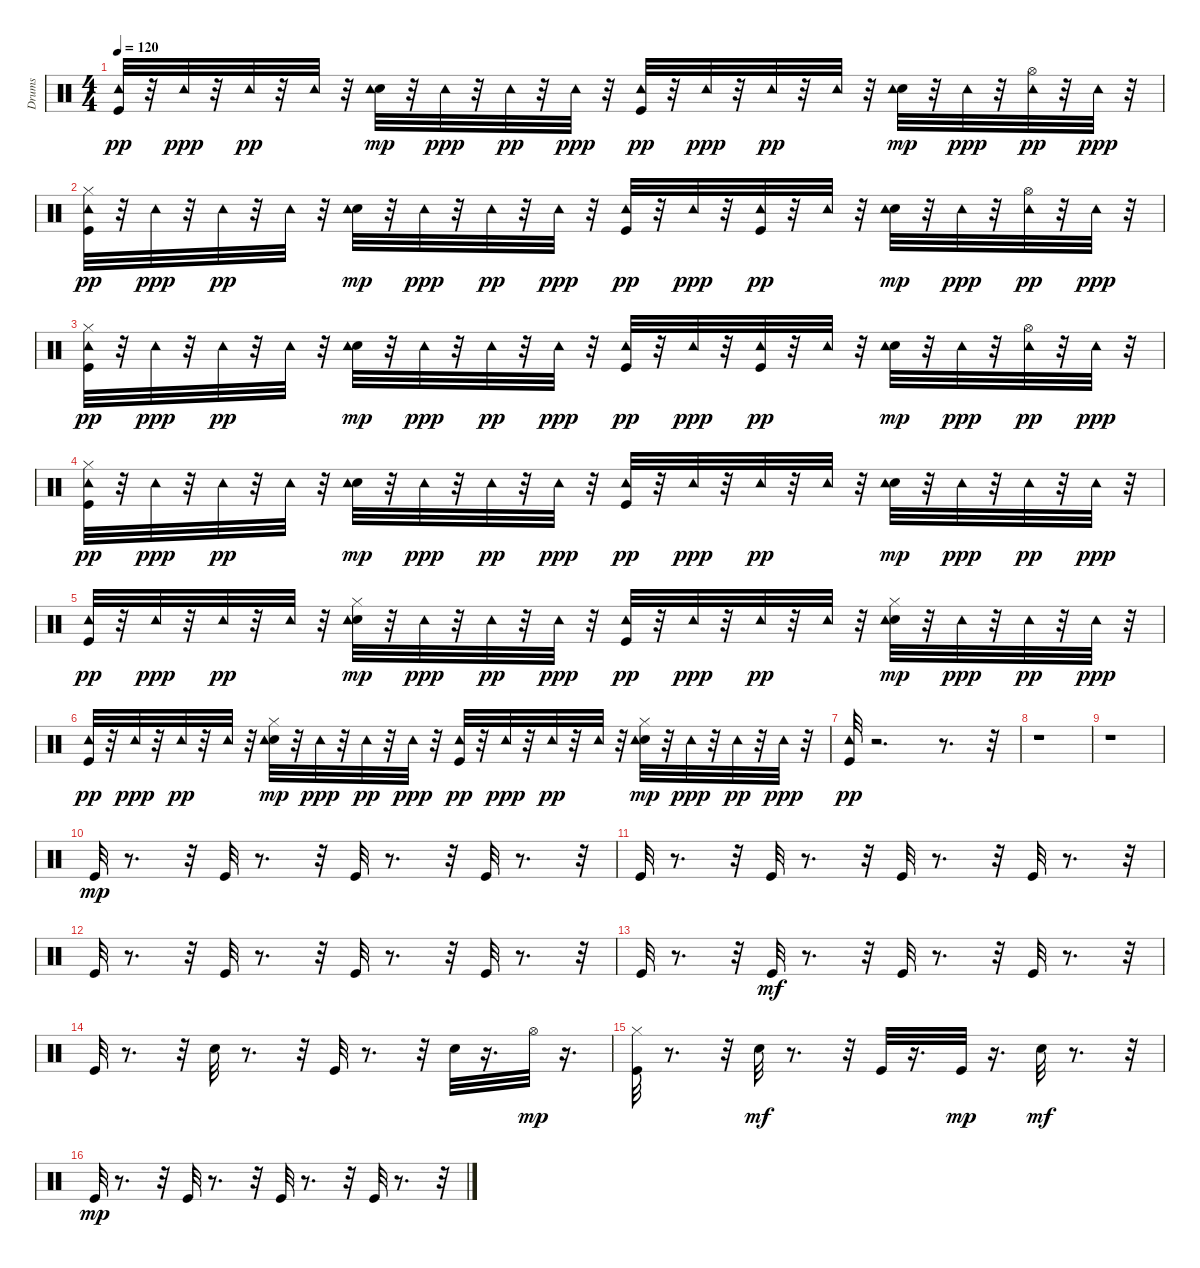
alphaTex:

\track ("Drums" "Drums") {instrument percussion}
\staff {score}
\articulation defaults
\ts (4 4)
\tempo 120
\clef neutral
\ks c
("Kick (hit)" "Tambourine (hit)").32{dy pp} r.32 "Tambourine (hit)".32{dy ppp} r.32 "Tambourine (hit)".32{dy pp} r.32 "Tambourine (hit)".32 r.32 ("Electric Snare (hit)" "Tambourine (hit)").32{dy mp} r.32 "Tambourine (hit)".32{dy ppp} r.32 "Tambourine (hit)".32{dy pp} r.32 "Tambourine (hit)".32{dy ppp} r.32 ("Kick (hit)" "Tambourine (hit)").32{dy pp} r.32 "Tambourine (hit)".32{dy ppp} r.32 "Tambourine (hit)".32{dy pp} r.32 "Tambourine (hit)".32 r.32 ("Electric Snare (hit)" "Tambourine (hit)").32{dy mp} r.32 "Tambourine (hit)".32{dy ppp} r.32 ("Hi-Hat (open)" "Tambourine (hit)").32{dy pp} r.32 "Tambourine (hit)".32{dy ppp} r.32 |
("Kick (hit)" "Hi-Hat (closed)" "Tambourine (hit)").32{dy pp} r.32 "Tambourine (hit)".32{dy ppp} r.32 "Tambourine (hit)".32{dy pp} r.32 "Tambourine (hit)".32 r.32 ("Electric Snare (hit)" "Tambourine (hit)").32{dy mp} r.32 "Tambourine (hit)".32{dy ppp} r.32 "Tambourine (hit)".32{dy pp} r.32 "Tambourine (hit)".32{dy ppp} r.32 ("Kick (hit)" "Tambourine (hit)").32{dy pp} r.32 "Tambourine (hit)".32{dy ppp} r.32 ("Kick (hit)" "Tambourine (hit)").32{dy pp} r.32 "Tambourine (hit)".32 r.32 ("Electric Snare (hit)" "Tambourine (hit)").32{dy mp} r.32 "Tambourine (hit)".32{dy ppp} r.32 ("Hi-Hat (open)" "Tambourine (hit)").32{dy pp} r.32 "Tambourine (hit)".32{dy ppp} r.32 |
("Kick (hit)" "Hi-Hat (closed)" "Tambourine (hit)").32{dy pp} r.32 "Tambourine (hit)".32{dy ppp} r.32 "Tambourine (hit)".32{dy pp} r.32 "Tambourine (hit)".32 r.32 ("Electric Snare (hit)" "Tambourine (hit)").32{dy mp} r.32 "Tambourine (hit)".32{dy ppp} r.32 "Tambourine (hit)".32{dy pp} r.32 "Tambourine (hit)".32{dy ppp} r.32 ("Kick (hit)" "Tambourine (hit)").32{dy pp} r.32 "Tambourine (hit)".32{dy ppp} r.32 ("Kick (hit)" "Tambourine (hit)").32{dy pp} r.32 "Tambourine (hit)".32 r.32 ("Electric Snare (hit)" "Tambourine (hit)").32{dy mp} r.32 "Tambourine (hit)".32{dy ppp} r.32 ("Hi-Hat (open)" "Tambourine (hit)").32{dy pp} r.32 "Tambourine (hit)".32{dy ppp} r.32 |
("Kick (hit)" "Hi-Hat (closed)" "Tambourine (hit)").32{dy pp} r.32 "Tambourine (hit)".32{dy ppp} r.32 "Tambourine (hit)".32{dy pp} r.32 "Tambourine (hit)".32 r.32 ("Electric Snare (hit)" "Tambourine (hit)").32{dy mp} r.32 "Tambourine (hit)".32{dy ppp} r.32 "Tambourine (hit)".32{dy pp} r.32 "Tambourine (hit)".32{dy ppp} r.32 ("Kick (hit)" "Tambourine (hit)").32{dy pp} r.32 "Tambourine (hit)".32{dy ppp} r.32 "Tambourine (hit)".32{dy pp} r.32 "Tambourine (hit)".32 r.32 ("Electric Snare (hit)" "Tambourine (hit)").32{dy mp} r.32 "Tambourine (hit)".32{dy ppp} r.32 "Tambourine (hit)".32{dy pp} r.32 "Tambourine (hit)".32{dy ppp} r.32 |
("Kick (hit)" "Tambourine (hit)").32{dy pp} r.32 "Tambourine (hit)".32{dy ppp} r.32 "Tambourine (hit)".32{dy pp} r.32 "Tambourine (hit)".32 r.32 ("Electric Snare (hit)" "Hi-Hat (closed)" "Tambourine (hit)").32{dy mp} r.32 "Tambourine (hit)".32{dy ppp} r.32 "Tambourine (hit)".32{dy pp} r.32 "Tambourine (hit)".32{dy ppp} r.32 ("Kick (hit)" "Tambourine (hit)").32{dy pp} r.32 "Tambourine (hit)".32{dy ppp} r.32 "Tambourine (hit)".32{dy pp} r.32 "Tambourine (hit)".32 r.32 ("Electric Snare (hit)" "Hi-Hat (closed)" "Tambourine (hit)").32{dy mp} r.32 "Tambourine (hit)".32{dy ppp} r.32 "Tambourine (hit)".32{dy pp} r.32 "Tambourine (hit)".32{dy ppp} r.32 |
("Kick (hit)" "Tambourine (hit)").32{dy pp} r.32 "Tambourine (hit)".32{dy ppp} r.32 "Tambourine (hit)".32{dy pp} r.32 "Tambourine (hit)".32 r.32 ("Electric Snare (hit)" "Hi-Hat (closed)" "Tambourine (hit)").32{dy mp} r.32 "Tambourine (hit)".32{dy ppp} r.32 "Tambourine (hit)".32{dy pp} r.32 "Tambourine (hit)".32{dy ppp} r.32 ("Kick (hit)" "Tambourine (hit)").32{dy pp} r.32 "Tambourine (hit)".32{dy ppp} r.32 "Tambourine (hit)".32{dy pp} r.32 "Tambourine (hit)".32 r.32 ("Electric Snare (hit)" "Hi-Hat (closed)" "Tambourine (hit)").32{dy mp} r.32 "Tambourine (hit)".32{dy ppp} r.32 "Tambourine (hit)".32{dy pp} r.32 "Tambourine (hit)".32{dy ppp} r.32 |
("Kick (hit)" "Tambourine (hit)").32{dy pp} r.2{d} r.8{d} r.32 |
r.1 |
r.1 |
"Kick (hit)".32{dy mp} r.8{d} r.32 "Kick (hit)".32 r.8{d} r.32 "Kick (hit)".32 r.8{d} r.32 "Kick (hit)".32 r.8{d} r.32 |
"Kick (hit)".32 r.8{d} r.32 "Kick (hit)".32 r.8{d} r.32 "Kick (hit)".32 r.8{d} r.32 "Kick (hit)".32 r.8{d} r.32 |
"Kick (hit)".32 r.8{d} r.32 "Kick (hit)".32 r.8{d} r.32 "Kick (hit)".32 r.8{d} r.32 "Kick (hit)".32 r.8{d} r.32 |
"Kick (hit)".32 r.8{d} r.32 "Kick (hit)".32{dy mf} r.8{d} r.32 "Kick (hit)".32 r.8{d} r.32 "Kick (hit)".32 r.8{d} r.32 |
"Kick (hit)".32 r.8{d} r.32 "Electric Snare (hit)".32 r.8{d} r.32 "Kick (hit)".32 r.8{d} r.32 "Electric Snare (hit)".32 r.16{d} "Hi-Hat (open)".32{dy mp} r.16{d} |
("Kick (hit)" "Hi-Hat (closed)").32 r.8{d} r.32 "Electric Snare (hit)".32{dy mf} r.8{d} r.32 "Kick (hit)".32 r.16{d} "Kick (hit)".32{dy mp} r.16{d} "Electric Snare (hit)".32{dy mf} r.8{d} r.32 |
"Kick (hit)".32{dy mp} r.8{d} r.32 "Kick (hit)".32 r.8{d} r.32 "Kick (hit)".32 r.8{d} r.32 "Kick (hit)".32 r.8{d} r.32
